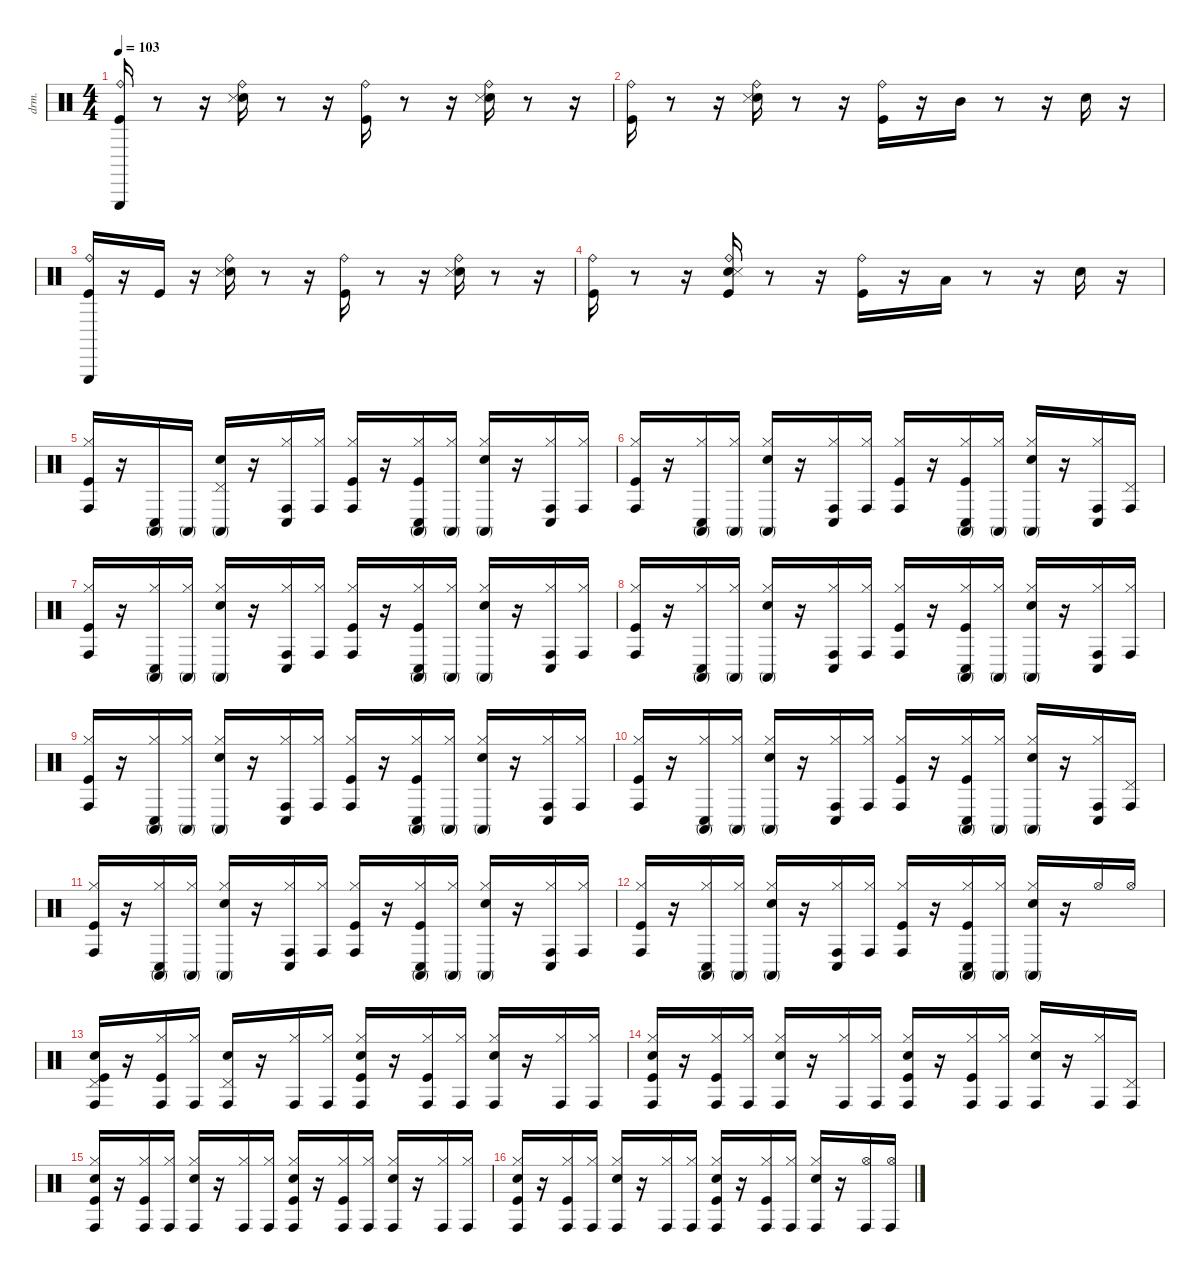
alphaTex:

\defaultSystemsLayout 4
\hideDynamics
\bracketExtendMode nobrackets
\otherSystemsTrackNameOrientation horizontal
\track ("drums" "drm.") {instrument percussion}
\staff {score}
\articulation defaults
\ts (4 4)
\tempo 103
\clef neutral
\ks c
("Kick (hit)" "Ride (bell)" "Triangle (hit)").16{dy f} r.8 r.16 ("Ride (bell)" "Snare (hit) 2" "Snare (side stick) 3").16 r.8 r.16 ("Ride (bell)" "Kick (hit)").16 r.8 r.16 ("Ride (bell)" "Snare (hit) 2" "Snare (side stick) 3").16 r.8 r.16 |
("Ride (bell)" "Kick (hit)").16 r.8 r.16 ("Snare (hit) 2" "Ride (bell)" "Snare (side stick) 3").16 r.8 r.16 ("Ride (bell)" "Kick (hit)").16 r.16 "Mid Tom (hit)".16 r.8 r.16 "Snare (hit) 2".16 r.16 |
("Kick (hit)" "Ride (bell)" "Triangle (hit)").16 r.16 "Kick (hit)".16 r.16 ("Snare (hit) 2" "Ride (bell)" "Snare (side stick) 3").16 r.8 r.16 ("Ride (bell)" "Kick (hit)").16 r.8 r.16 ("Snare (hit) 2" "Snare (side stick) 3" "Ride (bell)").16 r.8 r.16 |
("Kick (hit)" "Ride (bell)").16 r.8 r.16 ("Kick (hit)" "Snare (hit) 2" "Snare (side stick) 3" "Ride (bell)").16 r.8 r.16 ("Kick (hit)" "Ride (bell)").16 r.16 "Low Tom (hit)".16 r.8 r.16 "Snare (hit) 2".16 r.16 |
("Kick (hit)" "Hi-Hat (closed)" "Conga high (hit)").16 r.16 ("Conga high (mute)" "Conga low (hit)").16 "Conga high (mute)".16 ("Conga high (mute)" "Snare (hit) 2" "Pedal Hi-Hat (hit)").16 r.16 ("Hi-Hat (closed)" "Conga low (hit)" "Conga high (hit)").16 ("Hi-Hat (closed)" "Conga high (hit)").16 ("Kick (hit)" "Hi-Hat (closed)" "Conga high (hit)").16 r.16 ("Kick (hit)" "Conga low (hit)" "Conga high (mute)" "Hi-Hat (closed)").16 ("Conga high (mute)" "Hi-Hat (closed)").16 ("Conga high (mute)" "Snare (hit) 2" "Hi-Hat (closed)").16 r.16 ("Hi-Hat (closed)" "Conga low (hit)" "Conga high (hit)").16 ("Hi-Hat (closed)" "Conga high (hit)").16 |
("Kick (hit)" "Hi-Hat (closed)" "Conga high (hit)").16 r.16 ("Conga low (hit)" "Conga high (mute)" "Hi-Hat (closed)").16 ("Conga high (mute)" "Hi-Hat (closed)").16 ("Conga high (mute)" "Snare (hit) 2" "Hi-Hat (closed)").16 r.16 ("Hi-Hat (closed)" "Conga low (hit)" "Conga high (hit)").16 ("Hi-Hat (closed)" "Conga high (hit)").16 ("Kick (hit)" "Hi-Hat (closed)" "Conga high (hit)").16 r.16 ("Kick (hit)" "Conga low (hit)" "Conga high (mute)" "Hi-Hat (closed)").16 ("Conga high (mute)" "Hi-Hat (closed)").16 ("Conga high (mute)" "Snare (hit) 2" "Hi-Hat (closed)").16 r.16 ("Hi-Hat (closed)" "Conga low (hit)" "Conga high (hit)").16 ("Pedal Hi-Hat (hit)" "Conga high (hit)").16 |
("Kick (hit)" "Hi-Hat (closed)" "Conga high (hit)").16 r.16 ("Conga low (hit)" "Conga high (mute)" "Hi-Hat (closed)").16 ("Conga high (mute)" "Hi-Hat (closed)").16 ("Conga high (mute)" "Snare (hit) 2" "Hi-Hat (closed)").16 r.16 ("Hi-Hat (closed)" "Conga low (hit)" "Conga high (hit)").16 ("Hi-Hat (closed)" "Conga high (hit)").16 ("Kick (hit)" "Hi-Hat (closed)" "Conga high (hit)").16 r.16 ("Kick (hit)" "Conga low (hit)" "Conga high (mute)" "Hi-Hat (closed)").16 ("Conga high (mute)" "Hi-Hat (closed)").16 ("Conga high (mute)" "Snare (hit) 2" "Hi-Hat (closed)").16 r.16 ("Hi-Hat (closed)" "Conga low (hit)" "Conga high (hit)").16 ("Hi-Hat (closed)" "Conga high (hit)").16 |
("Kick (hit)" "Hi-Hat (closed)" "Conga high (hit)").16 r.16 ("Conga low (hit)" "Conga high (mute)" "Hi-Hat (closed)").16 ("Conga high (mute)" "Hi-Hat (closed)").16 ("Conga high (mute)" "Snare (hit) 2" "Hi-Hat (closed)").16 r.16 ("Hi-Hat (closed)" "Conga low (hit)" "Conga high (hit)").16 ("Hi-Hat (closed)" "Conga high (hit)").16 ("Kick (hit)" "Hi-Hat (closed)" "Conga high (hit)").16 r.16 ("Kick (hit)" "Conga low (hit)" "Conga high (mute)" "Hi-Hat (closed)").16 ("Conga high (mute)" "Hi-Hat (closed)").16 ("Conga high (mute)" "Snare (hit) 2" "Hi-Hat (closed)").16 r.16 ("Hi-Hat (closed)" "Conga low (hit)" "Conga high (hit)").16 ("Hi-Hat (closed)" "Conga high (hit)").16 |
("Kick (hit)" "Hi-Hat (closed)" "Conga high (hit)").16 r.16 ("Conga low (hit)" "Conga high (mute)" "Hi-Hat (closed)").16 ("Conga high (mute)" "Hi-Hat (closed)").16 ("Conga high (mute)" "Snare (hit) 2" "Hi-Hat (closed)").16 r.16 ("Hi-Hat (closed)" "Conga low (hit)" "Conga high (hit)").16 ("Hi-Hat (closed)" "Conga high (hit)").16 ("Kick (hit)" "Hi-Hat (closed)" "Conga high (hit)").16 r.16 ("Kick (hit)" "Conga low (hit)" "Conga high (mute)" "Hi-Hat (closed)").16 ("Conga high (mute)" "Hi-Hat (closed)").16 ("Conga high (mute)" "Snare (hit) 2" "Hi-Hat (closed)").16 r.16 ("Hi-Hat (closed)" "Conga low (hit)" "Conga high (hit)").16 ("Hi-Hat (closed)" "Conga high (hit)").16 |
("Kick (hit)" "Hi-Hat (closed)" "Conga high (hit)").16 r.16 ("Conga low (hit)" "Conga high (mute)" "Hi-Hat (closed)").16 ("Conga high (mute)" "Hi-Hat (closed)").16 ("Conga high (mute)" "Snare (hit) 2" "Hi-Hat (closed)").16 r.16 ("Hi-Hat (closed)" "Conga low (hit)" "Conga high (hit)").16 ("Hi-Hat (closed)" "Conga high (hit)").16 ("Kick (hit)" "Hi-Hat (closed)" "Conga high (hit)").16 r.16 ("Kick (hit)" "Conga low (hit)" "Conga high (mute)" "Hi-Hat (closed)").16 ("Conga high (mute)" "Hi-Hat (closed)").16 ("Conga high (mute)" "Snare (hit) 2" "Hi-Hat (closed)").16 r.16 ("Hi-Hat (closed)" "Conga low (hit)" "Conga high (hit)").16 ("Pedal Hi-Hat (hit)" "Conga high (hit)").16 |
("Kick (hit)" "Hi-Hat (closed)" "Conga high (hit)").16 r.16 ("Conga low (hit)" "Conga high (mute)" "Hi-Hat (closed)").16 ("Conga high (mute)" "Hi-Hat (closed)").16 ("Conga high (mute)" "Snare (hit) 2" "Hi-Hat (closed)").16 r.16 ("Hi-Hat (closed)" "Conga low (hit)" "Conga high (hit)").16 ("Hi-Hat (closed)" "Conga high (hit)").16 ("Kick (hit)" "Hi-Hat (closed)" "Conga high (hit)").16 r.16 ("Kick (hit)" "Conga low (hit)" "Conga high (mute)" "Hi-Hat (closed)").16 ("Conga high (mute)" "Hi-Hat (closed)").16 ("Conga high (mute)" "Snare (hit) 2" "Hi-Hat (closed)").16 r.16 ("Hi-Hat (closed)" "Conga low (hit)" "Conga high (hit)").16 ("Hi-Hat (closed)" "Conga high (hit)").16 |
("Kick (hit)" "Hi-Hat (closed)" "Conga high (hit)").16 r.16 ("Conga low (hit)" "Conga high (mute)" "Hi-Hat (closed)").16 ("Conga high (mute)" "Hi-Hat (closed)").16 ("Conga high (mute)" "Snare (hit) 2" "Hi-Hat (closed)").16 r.16 ("Conga low (hit)" "Hi-Hat (closed)" "Conga high (hit)").16 ("Hi-Hat (closed)" "Conga high (hit)").16 ("Kick (hit)" "Hi-Hat (closed)" "Conga high (hit)").16 r.16 ("Conga low (hit)" "Conga high (mute)" "Kick (hit)" "Hi-Hat (closed)").16 ("Conga high (mute)" "Hi-Hat (closed)").16 ("Conga high (mute)" "Hi-Hat (closed)" "Snare (hit) 2").16 r.16 "Hi-Hat (open)".16 "Hi-Hat (open)".16 |
("Kick (hit)" "Snare (hit) 2" "Pedal Hi-Hat (hit)" "Conga high (hit)").16 r.16 ("Kick (hit)" "Hi-Hat (closed)" "Conga high (hit)").16 ("Hi-Hat (closed)" "Conga high (hit)").16 ("Snare (hit) 2" "Pedal Hi-Hat (hit)" "Conga high (hit)").16 r.16 ("Hi-Hat (closed)" "Conga high (hit)").16 ("Hi-Hat (closed)" "Conga high (hit)").16 ("Kick (hit)" "Snare (hit) 2" "Hi-Hat (closed)" "Conga high (hit)").16 r.16 ("Kick (hit)" "Hi-Hat (closed)" "Conga high (hit)").16 ("Hi-Hat (closed)" "Conga high (hit)").16 ("Snare (hit) 2" "Hi-Hat (closed)" "Conga high (hit)").16 r.16 ("Hi-Hat (closed)" "Conga high (hit)").16 ("Hi-Hat (closed)" "Conga high (hit)").16 |
("Kick (hit)" "Snare (hit) 2" "Hi-Hat (closed)" "Conga high (hit)").16 r.16 ("Kick (hit)" "Hi-Hat (closed)" "Conga high (hit)").16 ("Hi-Hat (closed)" "Conga high (hit)").16 ("Snare (hit) 2" "Hi-Hat (closed)" "Conga high (hit)").16 r.16 ("Hi-Hat (closed)" "Conga high (hit)").16 ("Hi-Hat (closed)" "Conga high (hit)").16 ("Kick (hit)" "Snare (hit) 2" "Hi-Hat (closed)" "Conga high (hit)").16 r.16 ("Kick (hit)" "Hi-Hat (closed)" "Conga high (hit)").16 ("Hi-Hat (closed)" "Conga high (hit)").16 ("Snare (hit) 2" "Hi-Hat (closed)" "Conga high (hit)").16 r.16 ("Hi-Hat (closed)" "Conga high (hit)").16 ("Pedal Hi-Hat (hit)" "Conga high (hit)").16 |
("Kick (hit)" "Snare (hit) 2" "Hi-Hat (closed)" "Conga high (hit)").16 r.16 ("Kick (hit)" "Hi-Hat (closed)" "Conga high (hit)").16 ("Hi-Hat (closed)" "Conga high (hit)").16 ("Snare (hit) 2" "Hi-Hat (closed)" "Conga high (hit)").16 r.16 ("Hi-Hat (closed)" "Conga high (hit)").16 ("Hi-Hat (closed)" "Conga high (hit)").16 ("Kick (hit)" "Snare (hit) 2" "Hi-Hat (closed)" "Conga high (hit)").16 r.16 ("Kick (hit)" "Hi-Hat (closed)" "Conga high (hit)").16 ("Hi-Hat (closed)" "Conga high (hit)").16 ("Snare (hit) 2" "Hi-Hat (closed)" "Conga high (hit)").16 r.16 ("Hi-Hat (closed)" "Conga high (hit)").16 ("Hi-Hat (closed)" "Conga high (hit)").16 |
("Kick (hit)" "Snare (hit) 2" "Hi-Hat (closed)" "Conga high (hit)").16 r.16 ("Kick (hit)" "Hi-Hat (closed)" "Conga high (hit)").16 ("Hi-Hat (closed)" "Conga high (hit)").16 ("Snare (hit) 2" "Hi-Hat (closed)" "Conga high (hit)").16 r.16 ("Hi-Hat (closed)" "Conga high (hit)").16 ("Hi-Hat (closed)" "Conga high (hit)").16 ("Kick (hit)" "Snare (hit) 2" "Hi-Hat (closed)" "Conga high (hit)").16 r.16 ("Kick (hit)" "Hi-Hat (closed)" "Conga high (hit)").16 ("Hi-Hat (closed)" "Conga high (hit)").16 ("Snare (hit) 2" "Hi-Hat (closed)" "Conga high (hit)").16 r.16 ("Hi-Hat (open)" "Conga high (hit)").16 ("Hi-Hat (open)" "Conga high (hit)").16
